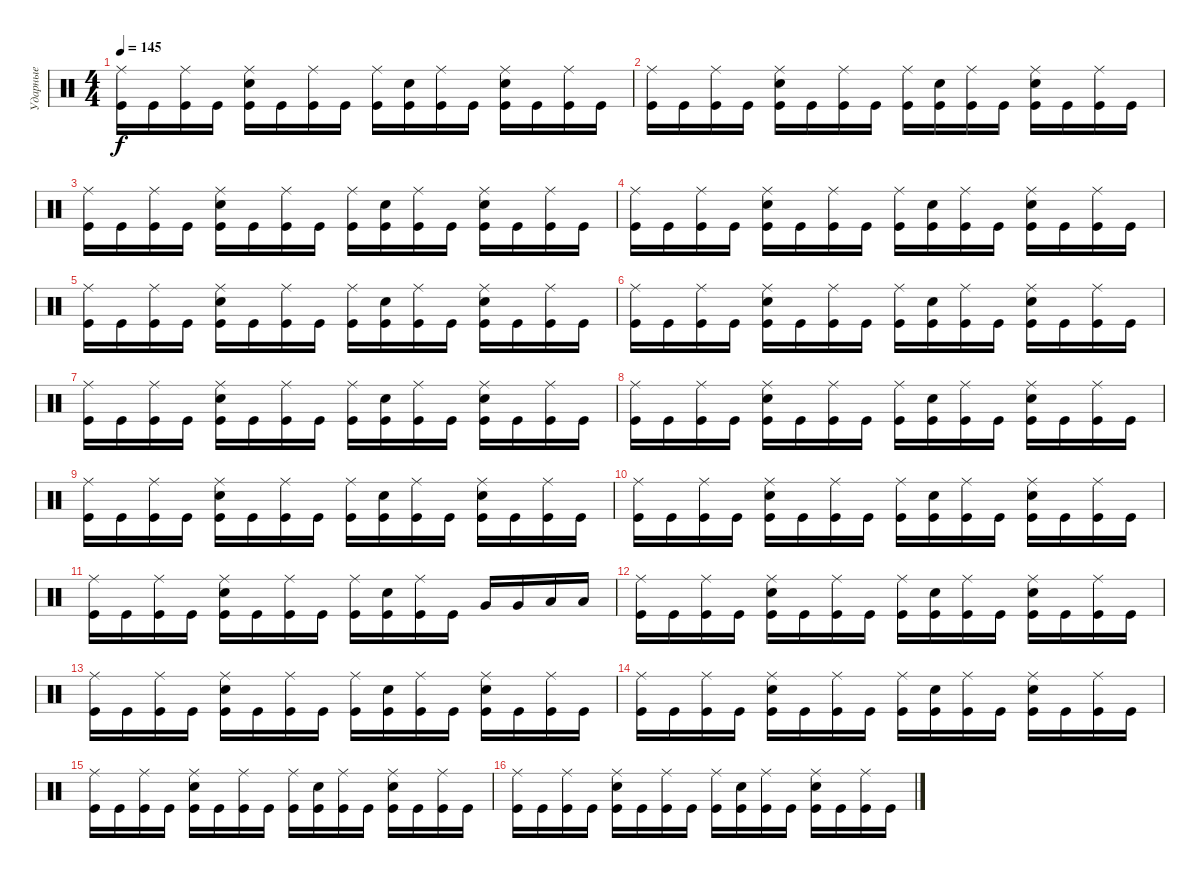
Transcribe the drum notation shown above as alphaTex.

\track ("Ударные" "Ударные") {instrument percussion}
\staff {score}
\articulation defaults
\ts (4 4)
\tempo 145
\clef neutral
\ks c
("Ride (middle)" "Kick (hit)").16{dy f} "Kick (hit)".16 ("Ride (middle)" "Kick (hit)").16 "Kick (hit)".16 ("Ride (middle)" "Snare (hit) 2" "Kick (hit)").16 "Kick (hit)".16 ("Ride (middle)" "Kick (hit)").16 "Kick (hit)".16 ("Ride (middle)" "Kick (hit)").16 ("Snare (hit) 2" "Kick (hit)").16 ("Ride (middle)" "Kick (hit)").16 "Kick (hit)".16 ("Ride (middle)" "Snare (hit) 2" "Kick (hit)").16 "Kick (hit)".16 ("Ride (middle)" "Kick (hit)").16 "Kick (hit)".16 |
("Ride (middle)" "Kick (hit)").16 "Kick (hit)".16 ("Ride (middle)" "Kick (hit)").16 "Kick (hit)".16 ("Ride (middle)" "Snare (hit) 2" "Kick (hit)").16 "Kick (hit)".16 ("Ride (middle)" "Kick (hit)").16 "Kick (hit)".16 ("Ride (middle)" "Kick (hit)").16 ("Snare (hit) 2" "Kick (hit)").16 ("Ride (middle)" "Kick (hit)").16 "Kick (hit)".16 ("Ride (middle)" "Snare (hit) 2" "Kick (hit)").16 "Kick (hit)".16 ("Ride (middle)" "Kick (hit)").16 "Kick (hit)".16 |
("Ride (middle)" "Kick (hit)").16 "Kick (hit)".16 ("Ride (middle)" "Kick (hit)").16 "Kick (hit)".16 ("Ride (middle)" "Snare (hit) 2" "Kick (hit)").16 "Kick (hit)".16 ("Ride (middle)" "Kick (hit)").16 "Kick (hit)".16 ("Ride (middle)" "Kick (hit)").16 ("Snare (hit) 2" "Kick (hit)").16 ("Ride (middle)" "Kick (hit)").16 "Kick (hit)".16 ("Ride (middle)" "Snare (hit) 2" "Kick (hit)").16 "Kick (hit)".16 ("Ride (middle)" "Kick (hit)").16 "Kick (hit)".16 |
("Ride (middle)" "Kick (hit)").16 "Kick (hit)".16 ("Ride (middle)" "Kick (hit)").16 "Kick (hit)".16 ("Ride (middle)" "Snare (hit) 2" "Kick (hit)").16 "Kick (hit)".16 ("Ride (middle)" "Kick (hit)").16 "Kick (hit)".16 ("Ride (middle)" "Kick (hit)").16 ("Snare (hit) 2" "Kick (hit)").16 ("Ride (middle)" "Kick (hit)").16 "Kick (hit)".16 ("Ride (middle)" "Snare (hit) 2" "Kick (hit)").16 "Kick (hit)".16 ("Ride (middle)" "Kick (hit)").16 "Kick (hit)".16 |
("Ride (middle)" "Kick (hit)").16 "Kick (hit)".16 ("Ride (middle)" "Kick (hit)").16 "Kick (hit)".16 ("Ride (middle)" "Snare (hit) 2" "Kick (hit)").16 "Kick (hit)".16 ("Ride (middle)" "Kick (hit)").16 "Kick (hit)".16 ("Ride (middle)" "Kick (hit)").16 ("Snare (hit) 2" "Kick (hit)").16 ("Ride (middle)" "Kick (hit)").16 "Kick (hit)".16 ("Ride (middle)" "Snare (hit) 2" "Kick (hit)").16 "Kick (hit)".16 ("Ride (middle)" "Kick (hit)").16 "Kick (hit)".16 |
("Ride (middle)" "Kick (hit)").16 "Kick (hit)".16 ("Ride (middle)" "Kick (hit)").16 "Kick (hit)".16 ("Ride (middle)" "Snare (hit) 2" "Kick (hit)").16 "Kick (hit)".16 ("Ride (middle)" "Kick (hit)").16 "Kick (hit)".16 ("Ride (middle)" "Kick (hit)").16 ("Snare (hit) 2" "Kick (hit)").16 ("Ride (middle)" "Kick (hit)").16 "Kick (hit)".16 ("Ride (middle)" "Snare (hit) 2" "Kick (hit)").16 "Kick (hit)".16 ("Ride (middle)" "Kick (hit)").16 "Kick (hit)".16 |
("Ride (middle)" "Kick (hit)").16 "Kick (hit)".16 ("Ride (middle)" "Kick (hit)").16 "Kick (hit)".16 ("Ride (middle)" "Snare (hit) 2" "Kick (hit)").16 "Kick (hit)".16 ("Ride (middle)" "Kick (hit)").16 "Kick (hit)".16 ("Ride (middle)" "Kick (hit)").16 ("Snare (hit) 2" "Kick (hit)").16 ("Ride (middle)" "Kick (hit)").16 "Kick (hit)".16 ("Ride (middle)" "Snare (hit) 2" "Kick (hit)").16 "Kick (hit)".16 ("Ride (middle)" "Kick (hit)").16 "Kick (hit)".16 |
("Ride (middle)" "Kick (hit)").16 "Kick (hit)".16 ("Ride (middle)" "Kick (hit)").16 "Kick (hit)".16 ("Ride (middle)" "Snare (hit) 2" "Kick (hit)").16 "Kick (hit)".16 ("Ride (middle)" "Kick (hit)").16 "Kick (hit)".16 ("Ride (middle)" "Kick (hit)").16 ("Snare (hit) 2" "Kick (hit)").16 ("Ride (middle)" "Kick (hit)").16 "Kick (hit)".16 ("Ride (middle)" "Snare (hit) 2" "Kick (hit)").16 "Kick (hit)".16 ("Ride (middle)" "Kick (hit)").16 "Kick (hit)".16 |
("Ride (middle)" "Kick (hit)").16 "Kick (hit)".16 ("Ride (middle)" "Kick (hit)").16 "Kick (hit)".16 ("Ride (middle)" "Snare (hit) 2" "Kick (hit)").16 "Kick (hit)".16 ("Ride (middle)" "Kick (hit)").16 "Kick (hit)".16 ("Ride (middle)" "Kick (hit)").16 ("Snare (hit) 2" "Kick (hit)").16 ("Ride (middle)" "Kick (hit)").16 "Kick (hit)".16 ("Ride (middle)" "Snare (hit) 2" "Kick (hit)").16 "Kick (hit)".16 ("Ride (middle)" "Kick (hit)").16 "Kick (hit)".16 |
("Ride (middle)" "Kick (hit)").16 "Kick (hit)".16 ("Ride (middle)" "Kick (hit)").16 "Kick (hit)".16 ("Ride (middle)" "Snare (hit) 2" "Kick (hit)").16 "Kick (hit)".16 ("Ride (middle)" "Kick (hit)").16 "Kick (hit)".16 ("Ride (middle)" "Kick (hit)").16 ("Snare (hit) 2" "Kick (hit)").16 ("Ride (middle)" "Kick (hit)").16 "Kick (hit)".16 ("Ride (middle)" "Snare (hit) 2" "Kick (hit)").16 "Kick (hit)".16 ("Ride (middle)" "Kick (hit)").16 "Kick (hit)".16 |
("Ride (middle)" "Kick (hit)").16 "Kick (hit)".16 ("Ride (middle)" "Kick (hit)").16 "Kick (hit)".16 ("Ride (middle)" "Snare (hit) 2" "Kick (hit)").16 "Kick (hit)".16 ("Ride (middle)" "Kick (hit)").16 "Kick (hit)".16 ("Ride (middle)" "Kick (hit)").16 ("Snare (hit) 2" "Kick (hit)").16 ("Ride (middle)" "Kick (hit)").16 "Kick (hit)".16 "Very Low Tom (hit)".16 "Very Low Tom (hit)".16 "Low Floor Tom (hit)".16 "Low Floor Tom (hit)".16 |
("Ride (middle)" "Kick (hit)").16 "Kick (hit)".16 ("Ride (middle)" "Kick (hit)").16 "Kick (hit)".16 ("Ride (middle)" "Snare (hit) 2" "Kick (hit)").16 "Kick (hit)".16 ("Ride (middle)" "Kick (hit)").16 "Kick (hit)".16 ("Ride (middle)" "Kick (hit)").16 ("Snare (hit) 2" "Kick (hit)").16 ("Ride (middle)" "Kick (hit)").16 "Kick (hit)".16 ("Ride (middle)" "Snare (hit) 2" "Kick (hit)").16 "Kick (hit)".16 ("Ride (middle)" "Kick (hit)").16 "Kick (hit)".16 |
("Ride (middle)" "Kick (hit)").16 "Kick (hit)".16 ("Ride (middle)" "Kick (hit)").16 "Kick (hit)".16 ("Ride (middle)" "Snare (hit) 2" "Kick (hit)").16 "Kick (hit)".16 ("Ride (middle)" "Kick (hit)").16 "Kick (hit)".16 ("Ride (middle)" "Kick (hit)").16 ("Snare (hit) 2" "Kick (hit)").16 ("Ride (middle)" "Kick (hit)").16 "Kick (hit)".16 ("Ride (middle)" "Snare (hit) 2" "Kick (hit)").16 "Kick (hit)".16 ("Ride (middle)" "Kick (hit)").16 "Kick (hit)".16 |
("Ride (middle)" "Kick (hit)").16{volume 10} "Kick (hit)".16 ("Ride (middle)" "Kick (hit)").16 "Kick (hit)".16 ("Ride (middle)" "Snare (hit) 2" "Kick (hit)").16 "Kick (hit)".16 ("Ride (middle)" "Kick (hit)").16 "Kick (hit)".16 ("Ride (middle)" "Kick (hit)").16 ("Snare (hit) 2" "Kick (hit)").16 ("Ride (middle)" "Kick (hit)").16 "Kick (hit)".16 ("Ride (middle)" "Snare (hit) 2" "Kick (hit)").16 "Kick (hit)".16 ("Ride (middle)" "Kick (hit)").16 "Kick (hit)".16 |
("Ride (middle)" "Kick (hit)").16 "Kick (hit)".16 ("Ride (middle)" "Kick (hit)").16 "Kick (hit)".16 ("Ride (middle)" "Snare (hit) 2" "Kick (hit)").16 "Kick (hit)".16 ("Ride (middle)" "Kick (hit)").16 "Kick (hit)".16 ("Ride (middle)" "Kick (hit)").16 ("Snare (hit) 2" "Kick (hit)").16 ("Ride (middle)" "Kick (hit)").16 "Kick (hit)".16 ("Ride (middle)" "Snare (hit) 2" "Kick (hit)").16 "Kick (hit)".16 ("Ride (middle)" "Kick (hit)").16 "Kick (hit)".16 |
("Ride (middle)" "Kick (hit)").16 "Kick (hit)".16 ("Ride (middle)" "Kick (hit)").16 "Kick (hit)".16 ("Ride (middle)" "Snare (hit) 2" "Kick (hit)").16 "Kick (hit)".16 ("Ride (middle)" "Kick (hit)").16 "Kick (hit)".16 ("Ride (middle)" "Kick (hit)").16 ("Snare (hit) 2" "Kick (hit)").16 ("Ride (middle)" "Kick (hit)").16 "Kick (hit)".16 ("Ride (middle)" "Snare (hit) 2" "Kick (hit)").16 "Kick (hit)".16 ("Ride (middle)" "Kick (hit)").16 "Kick (hit)".16
